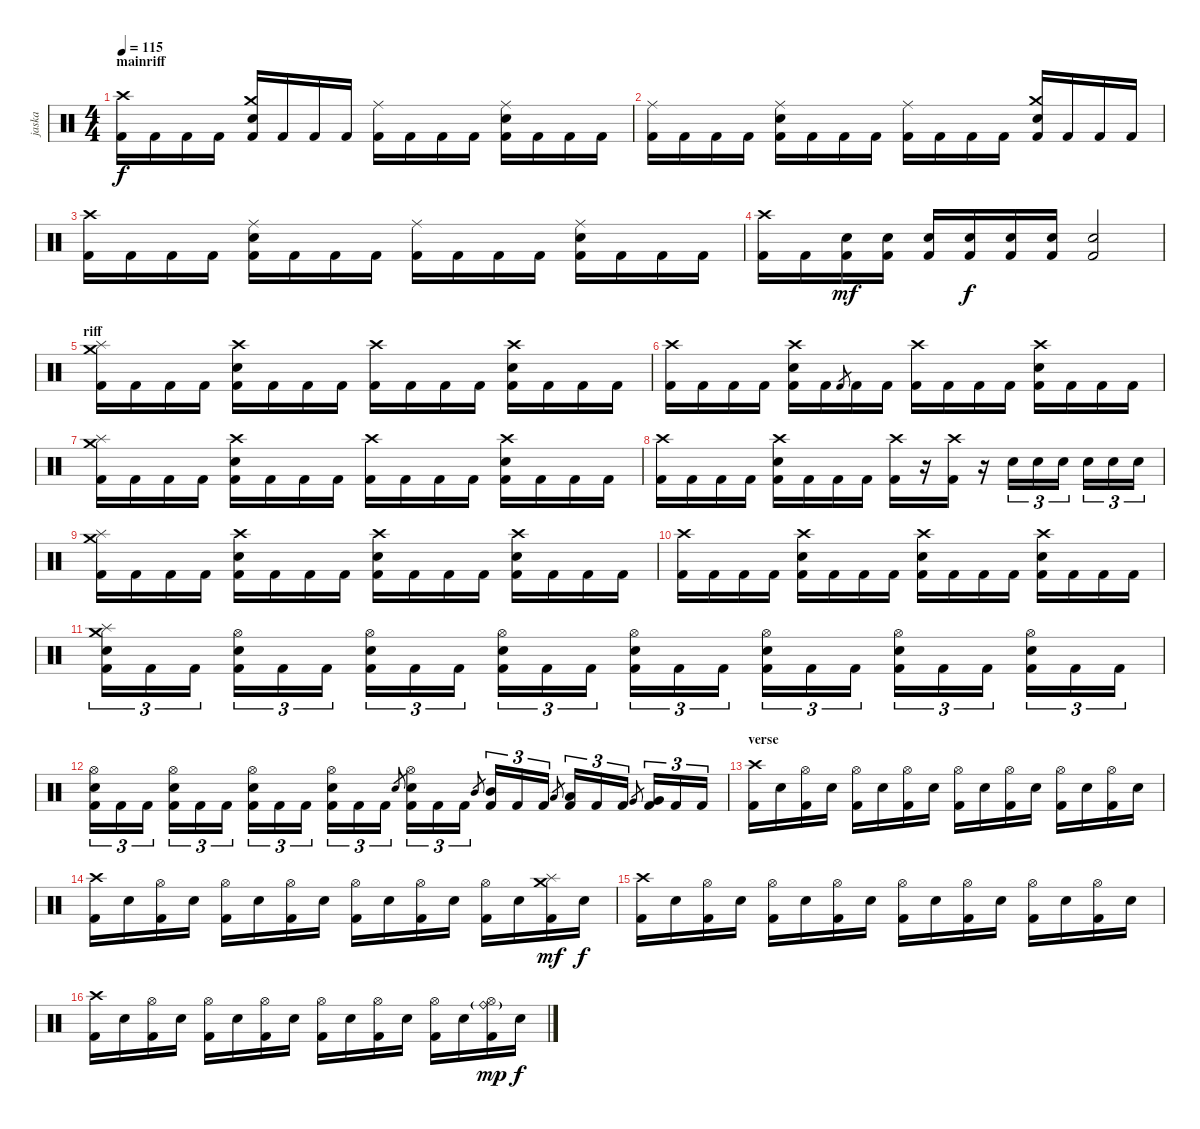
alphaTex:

\track ("jaska" "jaska") {instrument percussion}
\staff {score}
\articulation defaults
\ts (4 4)
\section ("" "mainriff")
\tempo 115
\clef neutral
\ks c
("Crash high (hit)" "Kick (hit) 2").16{dy f} "Kick (hit) 2".16 "Kick (hit) 2".16 "Kick (hit) 2".16 ("Crash medium (hit)" "Electric Snare (hit)" "Kick (hit) 2").16 "Kick (hit) 2".16 "Kick (hit) 2".16 "Kick (hit) 2".16 ("Ride (middle)" "Kick (hit) 2").16 "Kick (hit) 2".16 "Kick (hit) 2".16 "Kick (hit) 2".16 ("Ride (middle)" "Electric Snare (hit)" "Kick (hit) 2").16 "Kick (hit) 2".16 "Kick (hit) 2".16 "Kick (hit) 2".16 |
("Ride (middle)" "Kick (hit) 2").16 "Kick (hit) 2".16 "Kick (hit) 2".16 "Kick (hit) 2".16 ("Ride (middle)" "Electric Snare (hit)" "Kick (hit) 2").16 "Kick (hit) 2".16 "Kick (hit) 2".16 "Kick (hit) 2".16 ("Ride (middle)" "Kick (hit) 2").16 "Kick (hit) 2".16 "Kick (hit) 2".16 "Kick (hit) 2".16 ("Crash medium (hit)" "Electric Snare (hit)" "Kick (hit) 2").16 "Kick (hit) 2".16 "Kick (hit) 2".16 "Kick (hit) 2".16 |
("Crash high (hit)" "Kick (hit) 2").16 "Kick (hit) 2".16 "Kick (hit) 2".16 "Kick (hit) 2".16 ("Ride (middle)" "Electric Snare (hit)" "Kick (hit) 2").16 "Kick (hit) 2".16 "Kick (hit) 2".16 "Kick (hit) 2".16 ("Ride (middle)" "Kick (hit) 2").16 "Kick (hit) 2".16 "Kick (hit) 2".16 "Kick (hit) 2".16 ("Ride (middle)" "Electric Snare (hit)" "Kick (hit) 2").16 "Kick (hit) 2".16 "Kick (hit) 2".16 "Kick (hit) 2".16 |
("Crash high (hit)" "Kick (hit) 2").16 "Kick (hit) 2".16 ("Electric Snare (hit)" "Kick (hit) 2").16{dy mf} ("Electric Snare (hit)" "Kick (hit) 2").16 ("Electric Snare (hit)" "Kick (hit) 2").16 ("Electric Snare (hit)" "Kick (hit) 2").16{dy f} ("Electric Snare (hit)" "Kick (hit) 2").16 ("Electric Snare (hit)" "Kick (hit) 2").16 ("Electric Snare (hit)" "Kick (hit) 2").2 |
\section ("" "riff")
("Crash medium (hit)" "Splash (hit)" "Kick (hit) 2").16 "Kick (hit) 2".16 "Kick (hit) 2".16 "Kick (hit) 2".16 ("Crash high (hit)" "Electric Snare (hit)" "Kick (hit) 2").16 "Kick (hit) 2".16 "Kick (hit) 2".16 "Kick (hit) 2".16 ("Crash high (hit)" "Kick (hit) 2").16 "Kick (hit) 2".16 "Kick (hit) 2".16 "Kick (hit) 2".16 ("Crash high (hit)" "Electric Snare (hit)" "Kick (hit) 2").16 "Kick (hit) 2".16 "Kick (hit) 2".16 "Kick (hit) 2".16 |
("Crash high (hit)" "Kick (hit) 2").16 "Kick (hit) 2".16 "Kick (hit) 2".16 "Kick (hit) 2".16 ("Crash high (hit)" "Electric Snare (hit)" "Kick (hit) 2").16 "Kick (hit) 2".16 "Kick (hit) 2".8{gr} "Kick (hit) 2".16 "Kick (hit) 2".16 ("Crash high (hit)" "Kick (hit) 2").16 "Kick (hit) 2".16 "Kick (hit) 2".16 "Kick (hit) 2".16 ("Crash high (hit)" "Electric Snare (hit)" "Kick (hit) 2").16 "Kick (hit) 2".16 "Kick (hit) 2".16 "Kick (hit) 2".16 |
("Crash medium (hit)" "Splash (hit)" "Kick (hit) 2").16 "Kick (hit) 2".16 "Kick (hit) 2".16 "Kick (hit) 2".16 ("Crash high (hit)" "Electric Snare (hit)" "Kick (hit) 2").16 "Kick (hit) 2".16 "Kick (hit) 2".16 "Kick (hit) 2".16 ("Crash high (hit)" "Kick (hit) 2").16 "Kick (hit) 2".16 "Kick (hit) 2".16 "Kick (hit) 2".16 ("Crash high (hit)" "Electric Snare (hit)" "Kick (hit) 2").16 "Kick (hit) 2".16 "Kick (hit) 2".16 "Kick (hit) 2".16 |
("Crash high (hit)" "Kick (hit) 2").16 "Kick (hit) 2".16 "Kick (hit) 2".16 "Kick (hit) 2".16 ("Crash high (hit)" "Electric Snare (hit)" "Kick (hit) 2").16 "Kick (hit) 2".16 "Kick (hit) 2".16 "Kick (hit) 2".16 ("Crash high (hit)"{pm} "Kick (hit) 2").16 r.16 ("Crash high (hit)"{pm} "Kick (hit) 2").16 r.16 "Electric Snare (hit)".16{tu (3 2)} "Electric Snare (hit)".16{tu (3 2)} "Electric Snare (hit)".16{tu (3 2)} "Electric Snare (hit)".16{tu (3 2)} "Electric Snare (hit)".16{tu (3 2)} "Electric Snare (hit)".16{tu (3 2)} |
("Crash medium (hit)" "Splash (hit)" "Kick (hit) 2").16 "Kick (hit) 2".16 "Kick (hit) 2".16 "Kick (hit) 2".16 ("Crash high (hit)" "Electric Snare (hit)" "Kick (hit) 2").16 "Kick (hit) 2".16 "Kick (hit) 2".16 "Kick (hit) 2".16 ("Crash high (hit)" "Electric Snare (hit)" "Kick (hit) 2").16 "Kick (hit) 2".16 "Kick (hit) 2".16 "Kick (hit) 2".16 ("Crash high (hit)" "Electric Snare (hit)" "Kick (hit) 2").16 "Kick (hit) 2".16 "Kick (hit) 2".16 "Kick (hit) 2".16 |
("Crash high (hit)" "Kick (hit) 2").16 "Kick (hit) 2".16 "Kick (hit) 2".16 "Kick (hit) 2".16 ("Crash high (hit)" "Electric Snare (hit)" "Kick (hit) 2").16 "Kick (hit) 2".16 "Kick (hit) 2".16 "Kick (hit) 2".16 ("Crash high (hit)" "Electric Snare (hit)" "Kick (hit) 2").16 "Kick (hit) 2".16 "Kick (hit) 2".16 "Kick (hit) 2".16 ("Crash high (hit)" "Electric Snare (hit)" "Kick (hit) 2").16 "Kick (hit) 2".16 "Kick (hit) 2".16 "Kick (hit) 2".16 |
("Crash medium (hit)" "Splash (hit)" "Electric Snare (hit)" "Kick (hit) 2").16{tu (3 2)} "Kick (hit) 2".16{tu (3 2)} "Kick (hit) 2".16{tu (3 2)} ("Hi-Hat (open)" "Electric Snare (hit)" "Kick (hit) 2").16{tu (3 2)} "Kick (hit) 2".16{tu (3 2)} "Kick (hit) 2".16{tu (3 2)} ("Hi-Hat (open)" "Electric Snare (hit)" "Kick (hit) 2").16{tu (3 2)} "Kick (hit) 2".16{tu (3 2)} "Kick (hit) 2".16{tu (3 2)} ("Hi-Hat (open)" "Electric Snare (hit)" "Kick (hit) 2").16{tu (3 2)} "Kick (hit) 2".16{tu (3 2)} "Kick (hit) 2".16{tu (3 2)} ("Hi-Hat (open)" "Electric Snare (hit)" "Kick (hit) 2").16{tu (3 2)} "Kick (hit) 2".16{tu (3 2)} "Kick (hit) 2".16{tu (3 2)} ("Hi-Hat (open)" "Electric Snare (hit)" "Kick (hit) 2").16{tu (3 2)} "Kick (hit) 2".16{tu (3 2)} "Kick (hit) 2".16{tu (3 2)} ("Hi-Hat (open)" "Electric Snare (hit)" "Kick (hit) 2").16{tu (3 2)} "Kick (hit) 2".16{tu (3 2)} "Kick (hit) 2".16{tu (3 2)} ("Hi-Hat (open)" "Electric Snare (hit)" "Kick (hit) 2").16{tu (3 2)} "Kick (hit) 2".16{tu (3 2)} "Kick (hit) 2".16{tu (3 2)} |
("Hi-Hat (open)" "Electric Snare (hit)" "Kick (hit) 2").16{tu (3 2)} "Kick (hit) 2".16{tu (3 2)} "Kick (hit) 2".16{tu (3 2)} ("Hi-Hat (open)" "Electric Snare (hit)" "Kick (hit) 2").16{tu (3 2)} "Kick (hit) 2".16{tu (3 2)} "Kick (hit) 2".16{tu (3 2)} ("Hi-Hat (open)" "Electric Snare (hit)" "Kick (hit) 2").16{tu (3 2)} "Kick (hit) 2".16{tu (3 2)} "Kick (hit) 2".16{tu (3 2)} ("Hi-Hat (open)" "Electric Snare (hit)" "Kick (hit) 2").16{tu (3 2)} "Kick (hit) 2".16{tu (3 2)} "Kick (hit) 2".16{tu (3 2)} "Electric Snare (hit)".8{gr} ("Hi-Hat (open)" "Electric Snare (hit)" "Kick (hit) 2").16{tu (3 2)} "Kick (hit) 2".16{tu (3 2)} "Kick (hit) 2".16{tu (3 2)} "Mid Tom (hit)".8{gr} ("Mid Tom (hit)" "Kick (hit) 2").16{tu (3 2)} "Kick (hit) 2".16{tu (3 2)} "Kick (hit) 2".16{tu (3 2)} "Low Tom (hit)".8{gr} ("Low Tom (hit)" "Kick (hit) 2").16{tu (3 2)} "Kick (hit) 2".16{tu (3 2)} "Kick (hit) 2".16{tu (3 2)} "Very Low Tom (hit)".8{gr} ("Very Low Tom (hit)" "Kick (hit) 2").16{tu (3 2)} "Kick (hit) 2".16{tu (3 2)} "Kick (hit) 2".16{tu (3 2)} |
\section ("" "verse")
("Crash high (hit)" "Kick (hit) 2").16 "Electric Snare (hit)".16 ("Hi-Hat (open)" "Kick (hit) 2").16 "Electric Snare (hit)".16 ("Hi-Hat (open)" "Kick (hit) 2").16 "Electric Snare (hit)".16 ("Hi-Hat (open)" "Kick (hit) 2").16 "Electric Snare (hit)".16 ("Hi-Hat (open)" "Kick (hit) 2").16 "Electric Snare (hit)".16 ("Hi-Hat (open)" "Kick (hit) 2").16 "Electric Snare (hit)".16 ("Hi-Hat (open)" "Kick (hit) 2").16 "Electric Snare (hit)".16 ("Hi-Hat (open)" "Kick (hit) 2").16 "Electric Snare (hit)".16 |
("Crash high (hit)" "Kick (hit) 2").16 "Electric Snare (hit)".16 ("Hi-Hat (open)" "Kick (hit) 2").16 "Electric Snare (hit)".16 ("Hi-Hat (open)" "Kick (hit) 2").16 "Electric Snare (hit)".16 ("Hi-Hat (open)" "Kick (hit) 2").16 "Electric Snare (hit)".16 ("Hi-Hat (open)" "Kick (hit) 2").16 "Electric Snare (hit)".16 ("Hi-Hat (open)" "Kick (hit) 2").16 "Electric Snare (hit)".16 ("Hi-Hat (open)" "Kick (hit) 2").16 "Electric Snare (hit)".16 ("Crash medium (hit)" "Splash (hit)" "Kick (hit) 2").16{dy mf} "Electric Snare (hit)".16{dy f} |
("Crash high (hit)" "Kick (hit) 2").16 "Electric Snare (hit)".16 ("Hi-Hat (open)" "Kick (hit) 2").16 "Electric Snare (hit)".16 ("Hi-Hat (open)" "Kick (hit) 2").16 "Electric Snare (hit)".16 ("Hi-Hat (open)" "Kick (hit) 2").16 "Electric Snare (hit)".16 ("Hi-Hat (open)" "Kick (hit) 2").16 "Electric Snare (hit)".16 ("Hi-Hat (open)" "Kick (hit) 2").16 "Electric Snare (hit)".16 ("Hi-Hat (open)" "Kick (hit) 2").16 "Electric Snare (hit)".16 ("Hi-Hat (open)" "Kick (hit) 2").16 "Electric Snare (hit)".16 |
("Crash high (hit)" "Kick (hit) 2").16 "Electric Snare (hit)".16 ("Hi-Hat (open)" "Kick (hit) 2").16 "Electric Snare (hit)".16 ("Hi-Hat (open)" "Kick (hit) 2").16 "Electric Snare (hit)".16 ("Hi-Hat (open)" "Kick (hit) 2").16 "Electric Snare (hit)".16 ("Hi-Hat (open)" "Kick (hit) 2").16 "Electric Snare (hit)".16 ("Hi-Hat (open)" "Kick (hit) 2").16 "Electric Snare (hit)".16 ("Hi-Hat (open)" "Kick (hit) 2").16 "Electric Snare (hit)".16 ("Hi-Hat (open)" "Ride (bell)"{g} "Kick (hit) 2").16{dy mp} "Electric Snare (hit)".16{dy f}
